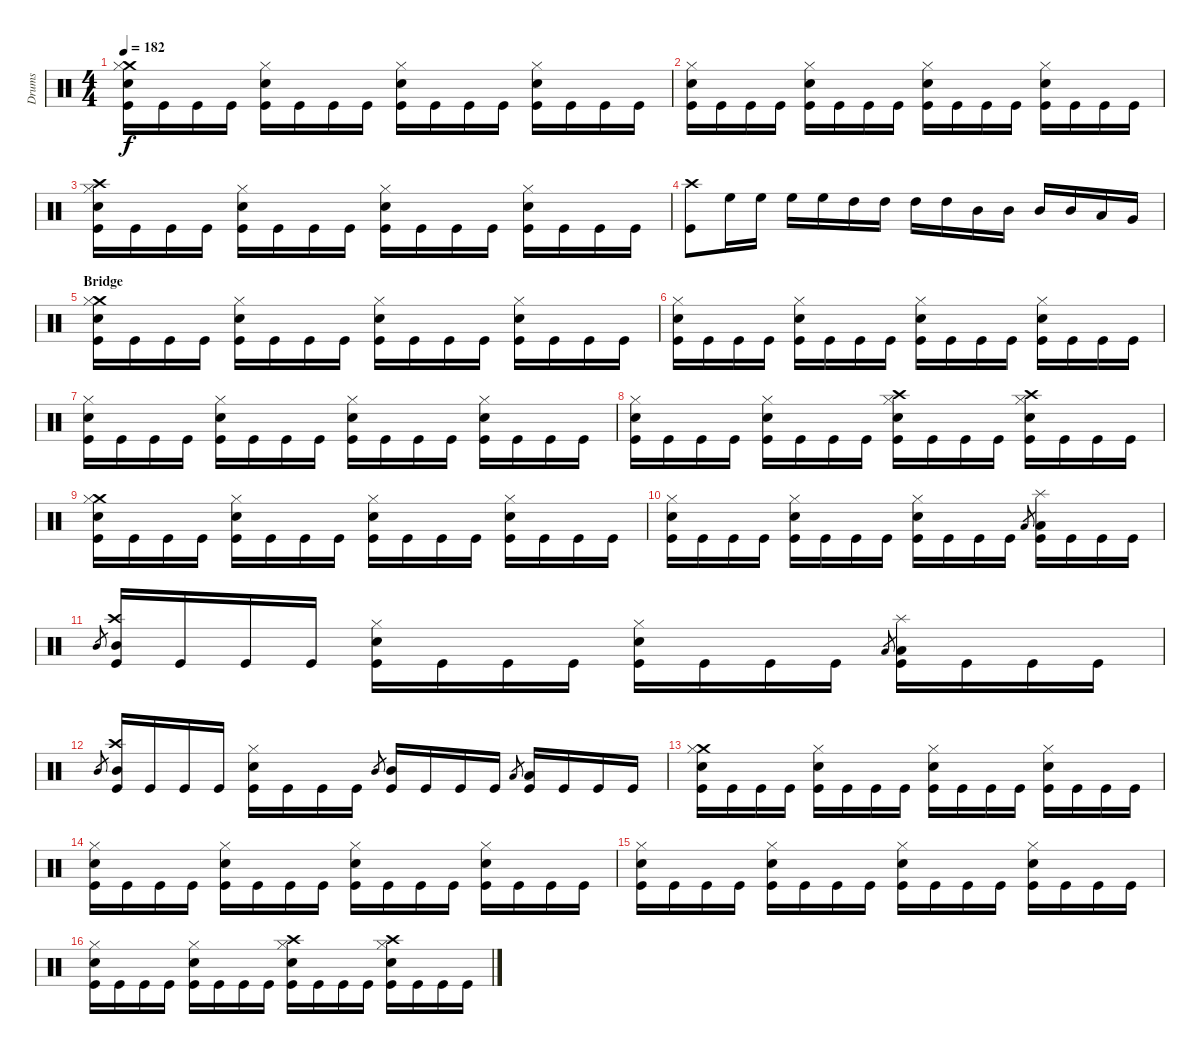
\track ("Drums" "Drums") {instrument percussion}
\staff {score}
\articulation defaults
\ts (4 4)
\tempo 182
\clef neutral
\ks c
("Crash medium (hit)" "Hi-Hat (closed)" "Snare (hit) 2" "Kick (hit)").16{dy f} "Kick (hit)".16 "Kick (hit)".16 "Kick (hit)".16 ("Hi-Hat (closed)" "Snare (hit) 2" "Kick (hit)").16 "Kick (hit)".16 "Kick (hit)".16 "Kick (hit)".16 ("Hi-Hat (closed)" "Snare (hit) 2" "Kick (hit)").16 "Kick (hit)".16 "Kick (hit)".16 "Kick (hit)".16 ("Hi-Hat (closed)" "Snare (hit) 2" "Kick (hit)").16 "Kick (hit)".16 "Kick (hit)".16 "Kick (hit)".16 |
("Hi-Hat (closed)" "Snare (hit) 2" "Kick (hit)").16 "Kick (hit)".16 "Kick (hit)".16 "Kick (hit)".16 ("Hi-Hat (closed)" "Snare (hit) 2" "Kick (hit)").16 "Kick (hit)".16 "Kick (hit)".16 "Kick (hit)".16 ("Hi-Hat (closed)" "Snare (hit) 2" "Kick (hit)").16 "Kick (hit)".16 "Kick (hit)".16 "Kick (hit)".16 ("Hi-Hat (closed)" "Snare (hit) 2" "Kick (hit)").16 "Kick (hit)".16 "Kick (hit)".16 "Kick (hit)".16 |
("Crash high (hit)" "Hi-Hat (closed)" "Snare (hit) 2" "Kick (hit)").16 "Kick (hit)".16 "Kick (hit)".16 "Kick (hit)".16 ("Hi-Hat (closed)" "Snare (hit) 2" "Kick (hit)").16 "Kick (hit)".16 "Kick (hit)".16 "Kick (hit)".16 ("Hi-Hat (closed)" "Snare (hit) 2" "Kick (hit)").16 "Kick (hit)".16 "Kick (hit)".16 "Kick (hit)".16 ("Hi-Hat (closed)" "Snare (hit) 2" "Kick (hit)").16 "Kick (hit)".16 "Kick (hit)".16 "Kick (hit)".16 |
("Crash high (hit)" "Kick (hit)").8 "High Floor Tom (hit)".16 "High Floor Tom (hit)".16 "High Floor Tom (hit)".16 "High Floor Tom (hit)".16 "High Tom (hit)".16 "High Tom (hit)".16 "High Tom (hit)".16 "High Tom (hit)".16 "Mid Tom (hit)".16 "Mid Tom (hit)".16 "Mid Tom (hit)".16 "Mid Tom (hit)".16 "Low Tom (hit)".16 "Very Low Tom (hit)".16 |
\section ("" "Bridge")
("Crash medium (hit)" "Hi-Hat (closed)" "Snare (hit) 2" "Kick (hit)").16 "Kick (hit)".16 "Kick (hit)".16 "Kick (hit)".16 ("Hi-Hat (closed)" "Snare (hit) 2" "Kick (hit)").16 "Kick (hit)".16 "Kick (hit)".16 "Kick (hit)".16 ("Hi-Hat (closed)" "Snare (hit) 2" "Kick (hit)").16 "Kick (hit)".16 "Kick (hit)".16 "Kick (hit)".16 ("Hi-Hat (closed)" "Snare (hit) 2" "Kick (hit)").16 "Kick (hit)".16 "Kick (hit)".16 "Kick (hit)".16 |
("Hi-Hat (closed)" "Snare (hit) 2" "Kick (hit)").16 "Kick (hit)".16 "Kick (hit)".16 "Kick (hit)".16 ("Hi-Hat (closed)" "Snare (hit) 2" "Kick (hit)").16 "Kick (hit)".16 "Kick (hit)".16 "Kick (hit)".16 ("Hi-Hat (closed)" "Snare (hit) 2" "Kick (hit)").16 "Kick (hit)".16 "Kick (hit)".16 "Kick (hit)".16 ("Hi-Hat (closed)" "Snare (hit) 2" "Kick (hit)").16 "Kick (hit)".16 "Kick (hit)".16 "Kick (hit)".16 |
("Hi-Hat (closed)" "Snare (hit) 2" "Kick (hit)").16 "Kick (hit)".16 "Kick (hit)".16 "Kick (hit)".16 ("Hi-Hat (closed)" "Snare (hit) 2" "Kick (hit)").16 "Kick (hit)".16 "Kick (hit)".16 "Kick (hit)".16 ("Hi-Hat (closed)" "Snare (hit) 2" "Kick (hit)").16 "Kick (hit)".16 "Kick (hit)".16 "Kick (hit)".16 ("Hi-Hat (closed)" "Snare (hit) 2" "Kick (hit)").16 "Kick (hit)".16 "Kick (hit)".16 "Kick (hit)".16 |
("Hi-Hat (closed)" "Snare (hit) 2" "Kick (hit)").16 "Kick (hit)".16 "Kick (hit)".16 "Kick (hit)".16 ("Hi-Hat (closed)" "Snare (hit) 2" "Kick (hit)").16 "Kick (hit)".16 "Kick (hit)".16 "Kick (hit)".16 ("Crash high (hit)" "Hi-Hat (closed)" "Snare (hit) 2" "Kick (hit)").16 "Kick (hit)".16 "Kick (hit)".16 "Kick (hit)".16 ("Crash high (hit)" "Hi-Hat (closed)" "Snare (hit) 2" "Kick (hit)").16 "Kick (hit)".16 "Kick (hit)".16 "Kick (hit)".16 |
("Crash medium (hit)" "Hi-Hat (closed)" "Snare (hit) 2" "Kick (hit)").16 "Kick (hit)".16 "Kick (hit)".16 "Kick (hit)".16 ("Hi-Hat (closed)" "Snare (hit) 2" "Kick (hit)").16 "Kick (hit)".16 "Kick (hit)".16 "Kick (hit)".16 ("Hi-Hat (closed)" "Snare (hit) 2" "Kick (hit)").16 "Kick (hit)".16 "Kick (hit)".16 "Kick (hit)".16 ("Hi-Hat (closed)" "Snare (hit) 2" "Kick (hit)").16 "Kick (hit)".16 "Kick (hit)".16 "Kick (hit)".16 |
("Hi-Hat (closed)" "Snare (hit) 2" "Kick (hit)").16 "Kick (hit)".16 "Kick (hit)".16 "Kick (hit)".16 ("Hi-Hat (closed)" "Snare (hit) 2" "Kick (hit)").16 "Kick (hit)".16 "Kick (hit)".16 "Kick (hit)".16 ("Hi-Hat (closed)" "Snare (hit) 2" "Kick (hit)").16 "Kick (hit)".16 "Kick (hit)".16 "Kick (hit)".16 "Low Tom (hit)".8{gr} ("Splash (hit)" "Low Tom (hit)" "Kick (hit)").16 "Kick (hit)".16 "Kick (hit)".16 "Kick (hit)".16 |
"Mid Tom (hit)".8{gr} ("Crash high (hit)" "Mid Tom (hit)" "Kick (hit)").16 "Kick (hit)".16 "Kick (hit)".16 "Kick (hit)".16 ("Hi-Hat (closed)" "Snare (hit) 2" "Kick (hit)").16 "Kick (hit)".16 "Kick (hit)".16 "Kick (hit)".16 ("Hi-Hat (closed)" "Snare (hit) 2" "Kick (hit)").16 "Kick (hit)".16 "Kick (hit)".16 "Kick (hit)".16 "Low Tom (hit)".8{gr} ("Splash (hit)" "Low Tom (hit)" "Kick (hit)").16 "Kick (hit)".16 "Kick (hit)".16 "Kick (hit)".16 |
"Mid Tom (hit)".8{gr} ("Crash high (hit)" "Mid Tom (hit)" "Kick (hit)").16 "Kick (hit)".16 "Kick (hit)".16 "Kick (hit)".16 ("Hi-Hat (closed)" "Snare (hit) 2" "Kick (hit)").16 "Kick (hit)".16 "Kick (hit)".16 "Kick (hit)".16 "Mid Tom (hit)".8{gr} ("Mid Tom (hit)" "Kick (hit)").16 "Kick (hit)".16 "Kick (hit)".16 "Kick (hit)".16 "Low Tom (hit)".8{gr} ("Low Tom (hit)" "Kick (hit)").16 "Kick (hit)".16 "Kick (hit)".16 "Kick (hit)".16 |
("Crash medium (hit)" "Hi-Hat (closed)" "Snare (hit) 2" "Kick (hit)").16 "Kick (hit)".16 "Kick (hit)".16 "Kick (hit)".16 ("Hi-Hat (closed)" "Snare (hit) 2" "Kick (hit)").16 "Kick (hit)".16 "Kick (hit)".16 "Kick (hit)".16 ("Hi-Hat (closed)" "Snare (hit) 2" "Kick (hit)").16 "Kick (hit)".16 "Kick (hit)".16 "Kick (hit)".16 ("Hi-Hat (closed)" "Snare (hit) 2" "Kick (hit)").16 "Kick (hit)".16 "Kick (hit)".16 "Kick (hit)".16 |
("Hi-Hat (closed)" "Snare (hit) 2" "Kick (hit)").16 "Kick (hit)".16 "Kick (hit)".16 "Kick (hit)".16 ("Hi-Hat (closed)" "Snare (hit) 2" "Kick (hit)").16 "Kick (hit)".16 "Kick (hit)".16 "Kick (hit)".16 ("Hi-Hat (closed)" "Snare (hit) 2" "Kick (hit)").16 "Kick (hit)".16 "Kick (hit)".16 "Kick (hit)".16 ("Hi-Hat (closed)" "Snare (hit) 2" "Kick (hit)").16 "Kick (hit)".16 "Kick (hit)".16 "Kick (hit)".16 |
("Hi-Hat (closed)" "Snare (hit) 2" "Kick (hit)").16 "Kick (hit)".16 "Kick (hit)".16 "Kick (hit)".16 ("Hi-Hat (closed)" "Snare (hit) 2" "Kick (hit)").16 "Kick (hit)".16 "Kick (hit)".16 "Kick (hit)".16 ("Hi-Hat (closed)" "Snare (hit) 2" "Kick (hit)").16 "Kick (hit)".16 "Kick (hit)".16 "Kick (hit)".16 ("Hi-Hat (closed)" "Snare (hit) 2" "Kick (hit)").16 "Kick (hit)".16 "Kick (hit)".16 "Kick (hit)".16 |
("Hi-Hat (closed)" "Snare (hit) 2" "Kick (hit)").16 "Kick (hit)".16 "Kick (hit)".16 "Kick (hit)".16 ("Hi-Hat (closed)" "Snare (hit) 2" "Kick (hit)").16 "Kick (hit)".16 "Kick (hit)".16 "Kick (hit)".16 ("Crash high (hit)" "Hi-Hat (closed)" "Snare (hit) 2" "Kick (hit)").16 "Kick (hit)".16 "Kick (hit)".16 "Kick (hit)".16 ("Crash high (hit)" "Hi-Hat (closed)" "Snare (hit) 2" "Kick (hit)").16 "Kick (hit)".16 "Kick (hit)".16 "Kick (hit)".16
